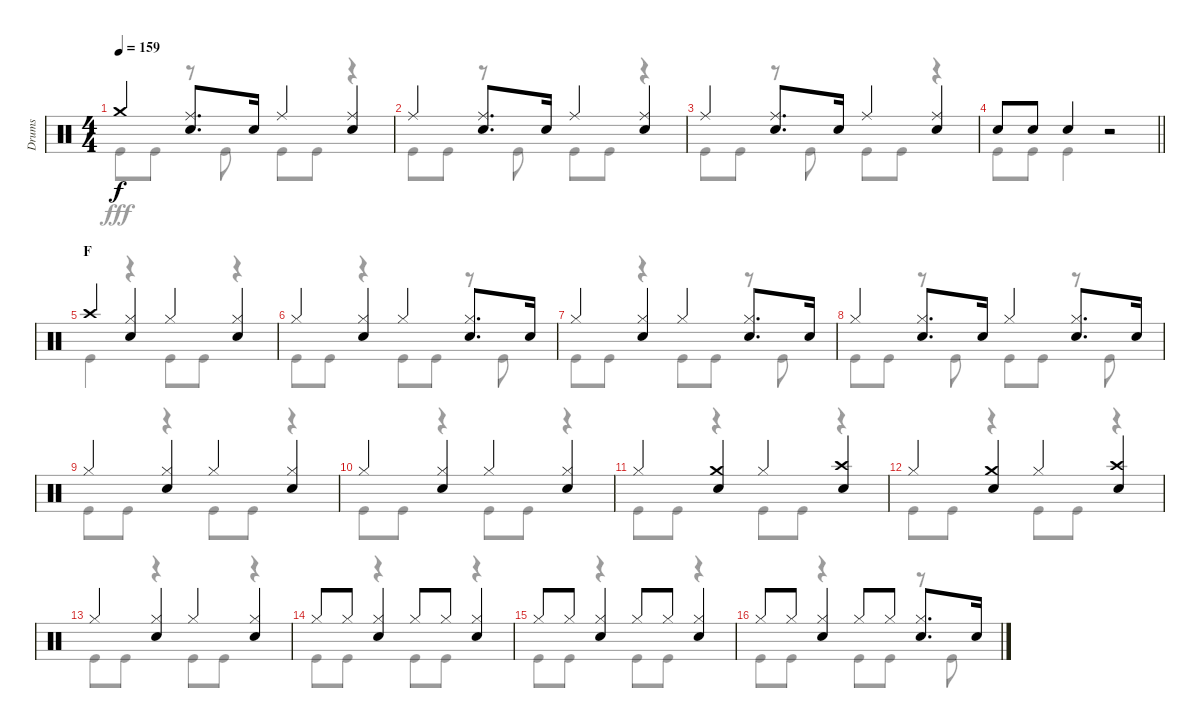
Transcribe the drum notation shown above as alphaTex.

\track ("Drums" "Drums") {instrument percussion}
\staff {score}
\articulation defaults
\voice
\ts (4 4)
\tempo 159
\clef neutral
\ks c "Crash medium (hit)".4{dy f}
("Ride (middle)" "Snare (hit) 2").8{d} "Snare (hit) 2".16 "Ride (middle)".4 ("Ride (middle)" "Snare (hit) 2").4 |
"Ride (middle)".4 ("Ride (middle)" "Snare (hit) 2").8{d} "Snare (hit) 2".16 "Ride (middle)".4 ("Ride (middle)" "Snare (hit) 2").4 |
"Ride (middle)".4 ("Ride (middle)" "Snare (hit) 2").8{d} "Snare (hit) 2".16 "Ride (middle)".4 ("Ride (middle)" "Snare (hit) 2").4 |
\barLineRight lightlight "Snare (hit) 2".8 "Snare (hit) 2".8 "Snare (hit) 2".4
r.2 |
\section ("" "F")
"Crash high (hit)".4 ("Hi-Hat (closed)" "Snare (hit) 2").4 "Hi-Hat (closed)".4 ("Hi-Hat (closed)" "Snare (hit) 2").4 |
"Hi-Hat (closed)".4 ("Hi-Hat (closed)" "Snare (hit) 2").4 "Hi-Hat (closed)".4 ("Hi-Hat (closed)" "Snare (hit) 2").8{d} "Snare (hit) 2".16 |
"Hi-Hat (closed)".4 ("Hi-Hat (closed)" "Snare (hit) 2").4 "Hi-Hat (closed)".4 ("Hi-Hat (closed)" "Snare (hit) 2").8{d} "Snare (hit) 2".16 |
"Hi-Hat (closed)".4 ("Hi-Hat (closed)" "Snare (hit) 2").8{d} "Snare (hit) 2".16 "Hi-Hat (closed)".4 ("Hi-Hat (closed)" "Snare (hit) 2").8{d} "Snare (hit) 2".16 |
"Hi-Hat (closed)".4 ("Hi-Hat (closed)" "Snare (hit) 2").4 "Hi-Hat (closed)".4 ("Hi-Hat (closed)" "Snare (hit) 2").4 |
"Hi-Hat (closed)".4 ("Hi-Hat (closed)" "Snare (hit) 2").4 "Hi-Hat (closed)".4 ("Hi-Hat (closed)" "Snare (hit) 2").4 |
"Hi-Hat (closed)".4 ("Crash medium (hit)" "Snare (hit) 2").4 "Hi-Hat (closed)".4 ("Crash high (hit)" "Snare (hit) 2").4 |
"Hi-Hat (closed)".4 ("Crash medium (hit)" "Snare (hit) 2").4 "Hi-Hat (closed)".4 ("Crash high (hit)" "Snare (hit) 2").4 |
"Hi-Hat (closed)".4 ("Hi-Hat (closed)" "Snare (hit) 2").4 "Hi-Hat (closed)".4 ("Hi-Hat (closed)" "Snare (hit) 2").4 |
"Hi-Hat (closed)".8 "Hi-Hat (closed)".8 ("Hi-Hat (closed)" "Snare (hit) 2").4 "Hi-Hat (closed)".8 "Hi-Hat (closed)".8 ("Hi-Hat (closed)" "Snare (hit) 2").4 |
"Hi-Hat (closed)".8 "Hi-Hat (closed)".8 ("Hi-Hat (closed)" "Snare (hit) 2").4 "Hi-Hat (closed)".8 "Hi-Hat (closed)".8 ("Hi-Hat (closed)" "Snare (hit) 2").4 |
"Hi-Hat (closed)".8 "Hi-Hat (closed)".8 ("Hi-Hat (closed)" "Snare (hit) 2").4 "Hi-Hat (closed)".8 "Hi-Hat (closed)".8 ("Hi-Hat (closed)" "Snare (hit) 2").8{d} "Snare (hit) 2".16
\voice
\clef neutral
\ottava regular
\simile none
\ks c "Kick (hit)".8{dy fff} "Kick (hit)".8
r.8 "Kick (hit)".8 "Kick (hit)".8 "Kick (hit)".8 r.4 |
"Kick (hit)".8 "Kick (hit)".8 r.8 "Kick (hit)".8 "Kick (hit)".8 "Kick (hit)".8 r.4 |
"Kick (hit)".8 "Kick (hit)".8 r.8 "Kick (hit)".8 "Kick (hit)".8 "Kick (hit)".8 r.4 |
\barLineRight lightlight "Kick (hit)".8 "Kick (hit)".8 "Kick (hit)".4
r.2 |
"Kick (hit)".4 r.4 "Kick (hit)".8 "Kick (hit)".8 r.4 |
"Kick (hit)".8 "Kick (hit)".8 r.4 "Kick (hit)".8 "Kick (hit)".8 r.8 "Kick (hit)".8 |
"Kick (hit)".8 "Kick (hit)".8 r.4 "Kick (hit)".8 "Kick (hit)".8 r.8 "Kick (hit)".8 |
"Kick (hit)".8 "Kick (hit)".8 r.8 "Kick (hit)".8 "Kick (hit)".8 "Kick (hit)".8 r.8 "Kick (hit)".8 |
"Kick (hit)".8 "Kick (hit)".8 r.4 "Kick (hit)".8 "Kick (hit)".8 r.4 |
"Kick (hit)".8 "Kick (hit)".8 r.4 "Kick (hit)".8 "Kick (hit)".8 r.4 |
"Kick (hit)".8 "Kick (hit)".8 r.4 "Kick (hit)".8 "Kick (hit)".8 r.4 |
"Kick (hit)".8 "Kick (hit)".8 r.4 "Kick (hit)".8 "Kick (hit)".8 r.4 |
"Kick (hit)".8 "Kick (hit)".8 r.4 "Kick (hit)".8 "Kick (hit)".8 r.4 |
"Kick (hit)".8 "Kick (hit)".8 r.4 "Kick (hit)".8 "Kick (hit)".8 r.4 |
"Kick (hit)".8 "Kick (hit)".8 r.4 "Kick (hit)".8 "Kick (hit)".8 r.4 |
"Kick (hit)".8 "Kick (hit)".8 r.4 "Kick (hit)".8 "Kick (hit)".8 r.8 "Kick (hit)".8
